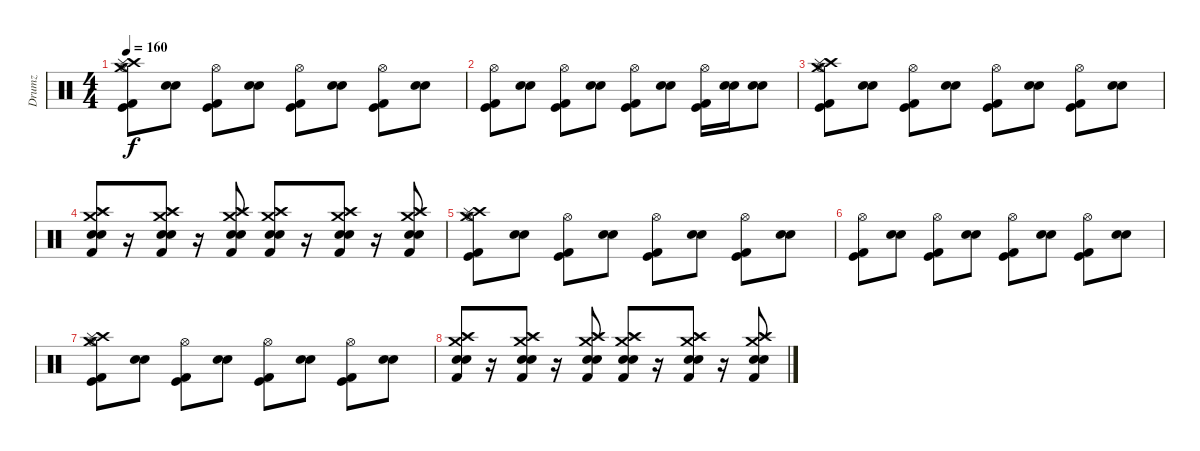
\track ("Drumz" "Drumz") {instrument percussion}
\staff {score}
\articulation defaults
\ts (4 4)
\tempo 160
\clef neutral
\ks c
("Kick (hit)" "Kick (hit) 2" "Hi-Hat (open)" "Crash high (hit)" "Crash medium (hit)" "Splash (hit)").8{dy f volume 12} ("Electric Snare (hit)" "Snare (hit) 2").8 ("Kick (hit) 2" "Kick (hit)" "Hi-Hat (open)").8 ("Snare (hit) 2" "Electric Snare (hit)").8 ("Kick (hit) 2" "Kick (hit)" "Hi-Hat (open)").8 ("Electric Snare (hit)" "Snare (hit) 2").8 ("Kick (hit)" "Kick (hit) 2" "Hi-Hat (open)").8 ("Snare (hit) 2" "Electric Snare (hit)").8 |
("Kick (hit)" "Kick (hit) 2" "Hi-Hat (open)").8 ("Electric Snare (hit)" "Snare (hit) 2").8 ("Kick (hit) 2" "Kick (hit)" "Hi-Hat (open)").8 ("Snare (hit) 2" "Electric Snare (hit)").8 ("Kick (hit) 2" "Kick (hit)" "Hi-Hat (open)").8 ("Electric Snare (hit)" "Snare (hit) 2").8 ("Kick (hit)" "Kick (hit) 2" "Hi-Hat (open)").16 ("Snare (hit) 2" "Electric Snare (hit)").16 ("Snare (hit) 2" "Electric Snare (hit)").8 |
("Kick (hit)" "Kick (hit) 2" "Hi-Hat (open)" "Crash high (hit)" "Splash (hit)" "Crash medium (hit)").8 ("Electric Snare (hit)" "Snare (hit) 2").8 ("Kick (hit) 2" "Kick (hit)" "Hi-Hat (open)").8 ("Snare (hit) 2" "Electric Snare (hit)").8 ("Kick (hit) 2" "Kick (hit)" "Hi-Hat (open)").8 ("Electric Snare (hit)" "Snare (hit) 2").8 ("Kick (hit)" "Kick (hit) 2" "Hi-Hat (open)").8 ("Snare (hit) 2" "Electric Snare (hit)").8 |
("Snare (hit) 2" "Electric Snare (hit)" "Kick (hit) 2" "Crash high (hit)" "Splash (hit)" "Crash medium (hit)").8 r.16 ("Snare (hit) 2" "Electric Snare (hit)" "Kick (hit) 2" "Crash high (hit)" "Splash (hit)" "Crash medium (hit)").8 r.16 ("Kick (hit) 2" "Snare (hit) 2" "Electric Snare (hit)" "Crash high (hit)" "Splash (hit)" "Crash medium (hit)").8 ("Crash high (hit)" "Splash (hit)" "Crash medium (hit)" "Electric Snare (hit)" "Snare (hit) 2" "Kick (hit) 2").8 r.16 ("Crash high (hit)" "Splash (hit)" "Crash medium (hit)" "Electric Snare (hit)" "Snare (hit) 2" "Kick (hit) 2").8 r.16 ("Splash (hit)" "Crash medium (hit)" "Electric Snare (hit)" "Snare (hit) 2" "Kick (hit) 2" "Crash high (hit)").8 |
("Kick (hit)" "Kick (hit) 2" "Hi-Hat (open)" "Crash high (hit)" "Crash medium (hit)" "Splash (hit)").8{volume 12} ("Electric Snare (hit)" "Snare (hit) 2").8 ("Kick (hit) 2" "Kick (hit)" "Hi-Hat (open)").8 ("Snare (hit) 2" "Electric Snare (hit)").8 ("Kick (hit) 2" "Kick (hit)" "Hi-Hat (open)").8 ("Electric Snare (hit)" "Snare (hit) 2").8 ("Kick (hit)" "Kick (hit) 2" "Hi-Hat (open)").8 ("Snare (hit) 2" "Electric Snare (hit)").8 |
("Kick (hit)" "Kick (hit) 2" "Hi-Hat (open)").8 ("Electric Snare (hit)" "Snare (hit) 2").8 ("Kick (hit) 2" "Kick (hit)" "Hi-Hat (open)").8 ("Snare (hit) 2" "Electric Snare (hit)").8 ("Kick (hit) 2" "Kick (hit)" "Hi-Hat (open)").8 ("Electric Snare (hit)" "Snare (hit) 2").8 ("Kick (hit)" "Kick (hit) 2" "Hi-Hat (open)").8 ("Snare (hit) 2" "Electric Snare (hit)").8 |
("Kick (hit)" "Kick (hit) 2" "Hi-Hat (open)" "Crash high (hit)" "Splash (hit)" "Crash medium (hit)").8 ("Electric Snare (hit)" "Snare (hit) 2").8 ("Kick (hit) 2" "Kick (hit)" "Hi-Hat (open)").8 ("Snare (hit) 2" "Electric Snare (hit)").8 ("Kick (hit) 2" "Kick (hit)" "Hi-Hat (open)").8 ("Electric Snare (hit)" "Snare (hit) 2").8 ("Kick (hit)" "Kick (hit) 2" "Hi-Hat (open)").8 ("Snare (hit) 2" "Electric Snare (hit)").8 |
("Snare (hit) 2" "Electric Snare (hit)" "Kick (hit) 2" "Crash high (hit)" "Splash (hit)" "Crash medium (hit)").8 r.16 ("Snare (hit) 2" "Electric Snare (hit)" "Kick (hit) 2" "Crash high (hit)" "Splash (hit)" "Crash medium (hit)").8 r.16 ("Kick (hit) 2" "Snare (hit) 2" "Electric Snare (hit)" "Crash high (hit)" "Splash (hit)" "Crash medium (hit)").8 ("Crash high (hit)" "Splash (hit)" "Crash medium (hit)" "Electric Snare (hit)" "Snare (hit) 2" "Kick (hit) 2").8 r.16 ("Crash high (hit)" "Splash (hit)" "Crash medium (hit)" "Electric Snare (hit)" "Snare (hit) 2" "Kick (hit) 2").8 r.16 ("Splash (hit)" "Crash medium (hit)" "Electric Snare (hit)" "Snare (hit) 2" "Kick (hit) 2" "Crash high (hit)").8
